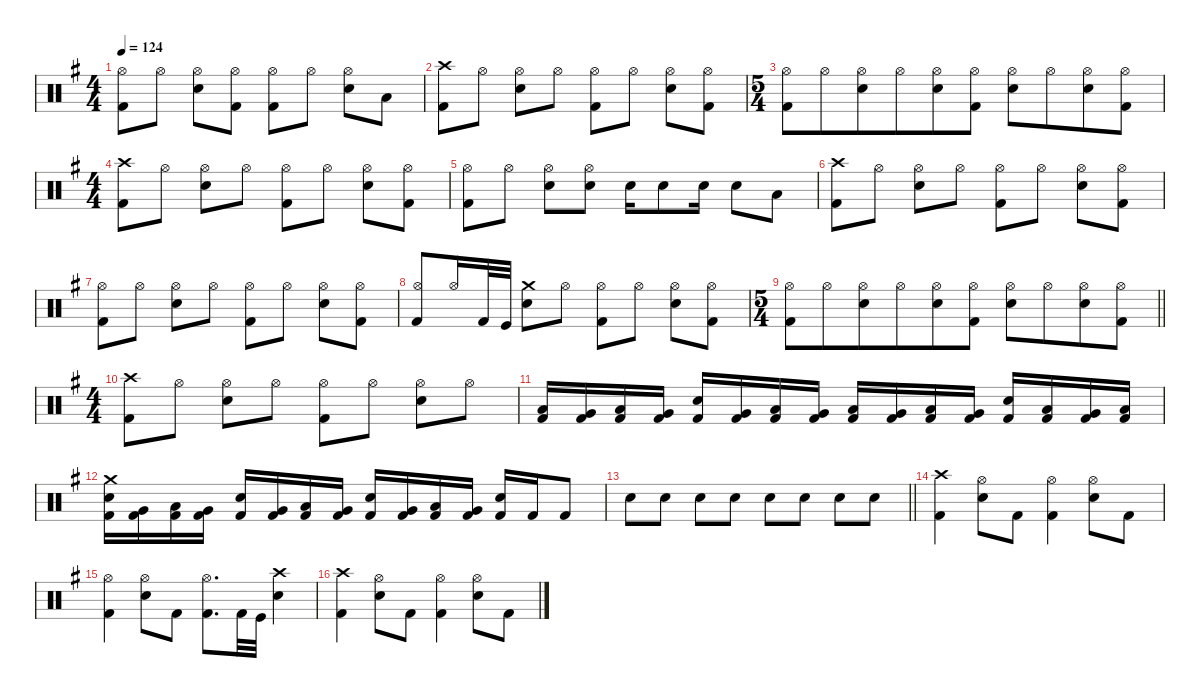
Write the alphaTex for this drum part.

\defaultSystemsLayout 4
\hideDynamics
\bracketExtendMode nobrackets
\singleTrackTrackNamePolicy hidden
\multiTrackTrackNamePolicy hidden
\otherSystemsTrackNameOrientation horizontal
\track ("Drums" "drm.") {defaultSystemsLayout 4 instrument percussion}
\staff {score}
\articulation defaults
\ts (4 4)
\tempo 124
\clef neutral
\ks eminor
("Hi-Hat (open)"{acc forcenatural} "Kick (hit) 2"{acc forcenatural}).8{dy mf beam Down} "Hi-Hat (open)"{acc forcenatural}.8{beam Down} ("Hi-Hat (open)"{acc forcenatural} "Snare (hit) 2"{acc forcenatural}).8{beam Down} ("Hi-Hat (open)"{acc forcenatural} "Kick (hit) 2"{acc forcenatural}).8{beam Down} ("Hi-Hat (open)"{acc forcenatural} "Kick (hit) 2"{acc forcenatural}).8{beam Down} "Hi-Hat (open)"{acc forcenatural}.8{beam Down} ("Hi-Hat (open)"{acc forcenatural} "Snare (hit) 2"{acc forcenatural}).8{beam Down} "Low Tom (hit)"{acc forcenatural}.8{dy fff beam Down} |
("Crash high (hit)"{acc forcenatural} "Kick (hit) 2"{acc forcenatural}).8{dy mp beam Down} "Hi-Hat (open)"{acc forcenatural}.8{beam Down} ("Hi-Hat (open)"{acc forcenatural} "Snare (hit) 2"{acc forcenatural}).8{beam Down} "Hi-Hat (open)"{acc forcenatural}.8{beam Down} ("Hi-Hat (open)"{acc forcenatural} "Kick (hit) 2"{acc forcenatural}).8{beam Down} "Hi-Hat (open)"{acc forcenatural}.8{beam Down} ("Hi-Hat (open)"{acc forcenatural} "Snare (hit) 2"{acc forcenatural}).8{beam Down} ("Hi-Hat (open)"{acc forcenatural} "Kick (hit) 2"{acc forcenatural}).8{beam Down} |
\ts (5 4)
\beaming (8 6 4)
("Hi-Hat (open)"{acc forcenatural} "Kick (hit) 2"{acc forcenatural}).8{beam Down} "Hi-Hat (open)"{acc forcenatural}.8{beam Down} ("Hi-Hat (open)"{acc forcenatural} "Snare (hit) 2"{acc forcenatural}).8{beam Down} "Hi-Hat (open)"{acc forcenatural}.8{beam Down} ("Hi-Hat (open)"{acc forcenatural} "Snare (hit) 2"{acc forcenatural}).8{beam Down} ("Hi-Hat (open)"{acc forcenatural} "Kick (hit) 2"{acc forcenatural}).8{beam Down} ("Hi-Hat (open)"{acc forcenatural} "Snare (hit) 2"{acc forcenatural}).8{beam Down} "Hi-Hat (open)"{acc forcenatural}.8{beam Down} ("Hi-Hat (open)"{acc forcenatural} "Snare (hit) 2"{acc forcenatural}).8{beam Down} ("Hi-Hat (open)"{acc forcenatural} "Kick (hit) 2"{acc forcenatural}).8{beam Down} |
\ts (4 4)
\beaming (8 2 2 2 2)
("Crash high (hit)"{acc forcenatural} "Kick (hit) 2"{acc forcenatural}).8{beam Down} "Hi-Hat (open)"{acc forcenatural}.8{beam Down} ("Hi-Hat (open)"{acc forcenatural} "Snare (hit) 2"{acc forcenatural}).8{beam Down} "Hi-Hat (open)"{acc forcenatural}.8{beam Down} ("Hi-Hat (open)"{acc forcenatural} "Kick (hit) 2"{acc forcenatural}).8{beam Down} "Hi-Hat (open)"{acc forcenatural}.8{beam Down} ("Hi-Hat (open)"{acc forcenatural} "Snare (hit) 2"{acc forcenatural}).8{beam Down} ("Hi-Hat (open)"{acc forcenatural} "Kick (hit) 2"{acc forcenatural}).8{beam Down} |
("Hi-Hat (open)"{acc forcenatural} "Kick (hit) 2"{acc forcenatural}).8{beam Down} "Hi-Hat (open)"{acc forcenatural}.8{beam Down} ("Hi-Hat (open)"{acc forcenatural} "Snare (hit) 2"{acc forcenatural}).8{beam Down} ("Hi-Hat (open)"{acc forcenatural} "Snare (hit) 2"{acc forcenatural}).8{beam Down} "Snare (hit) 2"{acc forcenatural}.16{dy mf beam Down} "Snare (hit) 2"{acc forcenatural}.8{dy ff beam Down} "Snare (hit) 2"{acc forcenatural}.16{beam Down} "Snare (hit) 2"{acc forcenatural}.8{beam Down} "Low Tom (hit)"{acc forcenatural}.8{dy fff beam Down} |
("Crash high (hit)"{acc forcenatural} "Kick (hit) 2"{acc forcenatural}).8{dy mf beam Down} "Hi-Hat (open)"{acc forcenatural}.8{beam Down} ("Hi-Hat (open)"{acc forcenatural} "Snare (hit) 2"{acc forcenatural}).8{beam Down} "Hi-Hat (open)"{acc forcenatural}.8{beam Down} ("Hi-Hat (open)"{acc forcenatural} "Kick (hit) 2"{acc forcenatural}).8{beam Down} "Hi-Hat (open)"{acc forcenatural}.8{beam Down} ("Hi-Hat (open)"{acc forcenatural} "Snare (hit) 2"{acc forcenatural}).8{beam Down} ("Hi-Hat (open)"{acc forcenatural} "Kick (hit) 2"{acc forcenatural}).8{beam Down} |
("Hi-Hat (open)"{acc forcenatural} "Kick (hit) 2"{acc forcenatural}).8{beam Down} "Hi-Hat (open)"{acc forcenatural}.8{beam Down} ("Hi-Hat (open)"{acc forcenatural} "Snare (hit) 2"{acc forcenatural}).8{beam Down} "Hi-Hat (open)"{acc forcenatural}.8{beam Down} ("Hi-Hat (open)"{acc forcenatural} "Kick (hit) 2"{acc forcenatural}).8{beam Down} "Hi-Hat (open)"{acc forcenatural}.8{beam Down} ("Hi-Hat (open)"{acc forcenatural} "Snare (hit) 2"{acc forcenatural}).8{beam Down} ("Hi-Hat (open)"{acc forcenatural} "Kick (hit) 2"{acc forcenatural}).8{dy f beam Down} |
("Hi-Hat (open)"{acc forcenatural} "Kick (hit) 2"{acc forcenatural}).8{dy mf beam Up} "Hi-Hat (open)"{acc forcenatural}.16{beam Up} "Kick (hit) 2"{acc forcenatural}.32{dy ff beam Up} "Kick (hit)"{acc forcenatural}.32{beam Up} ("Crash medium (hit)"{acc forcenatural} "Snare (hit) 2"{acc forcenatural}).8{dy mf beam Down} "Hi-Hat (open)"{acc forcenatural}.8{beam Down} ("Hi-Hat (open)"{acc forcenatural} "Kick (hit) 2"{acc forcenatural}).8{beam Down} "Hi-Hat (open)"{acc forcenatural}.8{beam Down} ("Hi-Hat (open)"{acc forcenatural} "Snare (hit) 2"{acc forcenatural}).8{beam Down} ("Hi-Hat (open)"{acc forcenatural} "Kick (hit) 2"{acc forcenatural}).8{beam Down} |
\ts (5 4)
\beaming (8 6 4)
\barLineRight lightlight
("Hi-Hat (open)"{acc forcenatural} "Kick (hit) 2"{acc forcenatural}).8{beam Down} "Hi-Hat (open)"{acc forcenatural}.8{beam Down} ("Hi-Hat (open)"{acc forcenatural} "Snare (hit) 2"{acc forcenatural}).8{beam Down} "Hi-Hat (open)"{acc forcenatural}.8{beam Down} ("Hi-Hat (open)"{acc forcenatural} "Snare (hit) 2"{acc forcenatural}).8{dy f beam Down} ("Hi-Hat (open)"{acc forcenatural} "Kick (hit) 2"{acc forcenatural}).8{beam Down} ("Hi-Hat (open)"{acc forcenatural} "Snare (hit) 2"{acc forcenatural}).8{beam Down} "Hi-Hat (open)"{acc forcenatural}.8{beam Down} ("Hi-Hat (open)"{acc forcenatural} "Snare (hit) 2"{acc forcenatural}).8{beam Down} ("Hi-Hat (open)"{acc forcenatural} "Kick (hit) 2"{acc forcenatural}).8{beam Down} |
\ts (4 4)
\beaming (8 2 2 2 2)
("Crash high (hit)"{acc forcenatural} "Kick (hit) 2"{acc forcenatural}).8{beam Down} "Hi-Hat (open)"{acc forcenatural}.8{dy mf beam Down} ("Hi-Hat (open)"{acc forcenatural} "Snare (hit) 2"{acc forcenatural}).8{beam Down} "Hi-Hat (open)"{acc forcenatural}.8{beam Down} ("Hi-Hat (open)"{acc forcenatural} "Kick (hit) 2"{acc forcenatural}).8{beam Down} "Hi-Hat (open)"{acc forcenatural}.8{beam Down} ("Hi-Hat (open)"{acc forcenatural} "Snare (hit) 2"{acc forcenatural}).8{beam Down} "Hi-Hat (open)"{acc forcenatural}.8{beam Down} |
("Low Tom (hit)"{acc forcenatural} "Kick (hit) 2"{acc forcenatural}).16{dy f beam Up} ("Very Low Tom (hit)"{acc forcenatural} "Kick (hit) 2"{acc forcenatural}).16{beam Up} ("Low Tom (hit)"{acc forcenatural} "Kick (hit) 2"{acc forcenatural}).16{beam Up} ("Very Low Tom (hit)"{acc forcenatural} "Kick (hit) 2"{acc forcenatural}).16{beam Up} ("Snare (hit) 2"{acc forcenatural} "Kick (hit) 2"{acc forcenatural}).16{dy ff beam Up} ("Very Low Tom (hit)"{acc forcenatural} "Kick (hit) 2"{acc forcenatural}).16{dy f beam Up} ("Low Tom (hit)"{acc forcenatural} "Kick (hit) 2"{acc forcenatural}).16{beam Up} ("Very Low Tom (hit)"{acc forcenatural} "Kick (hit) 2"{acc forcenatural}).16{beam Up} ("Low Tom (hit)"{acc forcenatural} "Kick (hit) 2"{acc forcenatural}).16{beam Up} ("Very Low Tom (hit)"{acc forcenatural} "Kick (hit) 2"{acc forcenatural}).16{beam Up} ("Low Tom (hit)"{acc forcenatural} "Kick (hit) 2"{acc forcenatural}).16{beam Up} ("Very Low Tom (hit)"{acc forcenatural} "Kick (hit) 2"{acc forcenatural}).16{beam Up} ("Snare (hit) 2"{acc forcenatural} "Kick (hit) 2"{acc forcenatural}).16{dy ff beam Up} ("Low Tom (hit)"{acc forcenatural} "Kick (hit) 2"{acc forcenatural}).16{dy f beam Up} ("Very Low Tom (hit)"{acc forcenatural} "Kick (hit) 2"{acc forcenatural}).16{beam Up} ("Low Tom (hit)"{acc forcenatural} "Kick (hit) 2"{acc forcenatural}).16{beam Up} |
("Crash medium (hit)"{acc forcenatural} "Snare (hit) 2"{acc forcenatural} "Kick (hit) 2"{acc forcenatural}).16{dy mf beam Down} ("Very Low Tom (hit)"{acc forcenatural} "Kick (hit) 2"{acc forcenatural}).16{dy f beam Down} ("Low Tom (hit)"{acc forcenatural} "Kick (hit) 2"{acc forcenatural}).16{beam Down} ("Very Low Tom (hit)"{acc forcenatural} "Kick (hit) 2"{acc forcenatural}).16{beam Down} ("Snare (hit) 2"{acc forcenatural} "Kick (hit) 2"{acc forcenatural}).16{dy ff beam Up} ("Very Low Tom (hit)"{acc forcenatural} "Kick (hit) 2"{acc forcenatural}).16{dy f beam Up} ("Low Tom (hit)"{acc forcenatural} "Kick (hit) 2"{acc forcenatural}).16{beam Up} ("Very Low Tom (hit)"{acc forcenatural} "Kick (hit) 2"{acc forcenatural}).16{beam Up} ("Snare (hit) 2"{acc forcenatural} "Kick (hit) 2"{acc forcenatural}).16{dy ff beam Up} ("Very Low Tom (hit)"{acc forcenatural} "Kick (hit) 2"{acc forcenatural}).16{dy f beam Up} ("Low Tom (hit)"{acc forcenatural} "Kick (hit) 2"{acc forcenatural}).16{beam Up} ("Very Low Tom (hit)"{acc forcenatural} "Kick (hit) 2"{acc forcenatural}).16{beam Up} ("Snare (hit) 2"{acc forcenatural} "Kick (hit) 2"{acc forcenatural}).16{dy ff beam Up} "Kick (hit) 2"{acc forcenatural}.16{beam Up} "Kick (hit) 2"{acc forcenatural}.8{beam Up} |
\barLineRight lightlight "Snare (hit) 2"{acc forcenatural}.8{dy f beam Down} "Snare (hit) 2"{acc forcenatural}.8{beam Down} "Snare (hit) 2"{acc forcenatural}.8{dy ff beam Down} "Snare (hit) 2"{acc forcenatural}.8{dy f beam Down} "Snare (hit) 2"{acc forcenatural}.8{dy ff beam Down} "Snare (hit) 2"{acc forcenatural}.8{dy f beam Down} "Snare (hit) 2"{acc forcenatural}.8{dy ff beam Down} "Snare (hit) 2"{acc forcenatural}.8{dy fff beam Down}
|
("Crash high (hit)"{acc forcenatural} "Kick (hit) 2"{acc forcenatural}).4{dy f beam Down} ("Hi-Hat (open)"{acc forcenatural} "Snare (hit) 2"{acc forcenatural}).8{dy mf beam Down} "Kick (hit) 2"{acc forcenatural}.8{dy ff beam Down} ("Hi-Hat (open)"{acc forcenatural} "Kick (hit) 2"{acc forcenatural}).4{dy mf beam Down} ("Hi-Hat (open)"{acc forcenatural} "Snare (hit) 2"{acc forcenatural}).8{beam Down} "Kick (hit) 2"{acc forcenatural}.8{dy ff beam Down} |
("Hi-Hat (open)"{acc forcenatural} "Kick (hit) 2"{acc forcenatural}).4{dy mf beam Down} ("Hi-Hat (open)"{acc forcenatural} "Snare (hit) 2"{acc forcenatural}).8{beam Down} "Kick (hit) 2"{acc forcenatural}.8{dy ff beam Down} ("Hi-Hat (open)"{acc forcenatural} "Kick (hit) 2"{acc forcenatural}).8{d dy mf beam Down} "Kick (hit) 2"{acc forcenatural}.32{dy ff beam Down} "Kick (hit)"{acc forcenatural}.32{beam Down} ("Crash high (hit)"{acc forcenatural} "Snare (hit) 2"{acc forcenatural}).4{dy mf beam Down} |
("Crash high (hit)"{acc forcenatural} "Kick (hit) 2"{acc forcenatural}).4{beam Down} ("Hi-Hat (open)"{acc forcenatural} "Snare (hit) 2"{acc forcenatural}).8{beam Down} "Kick (hit) 2"{acc forcenatural}.8{dy ff beam Down} ("Hi-Hat (open)"{acc forcenatural} "Kick (hit) 2"{acc forcenatural}).4{dy mf beam Down} ("Hi-Hat (open)"{acc forcenatural} "Snare (hit) 2"{acc forcenatural}).8{beam Down} "Kick (hit) 2"{acc forcenatural}.8{dy ff beam Down}
